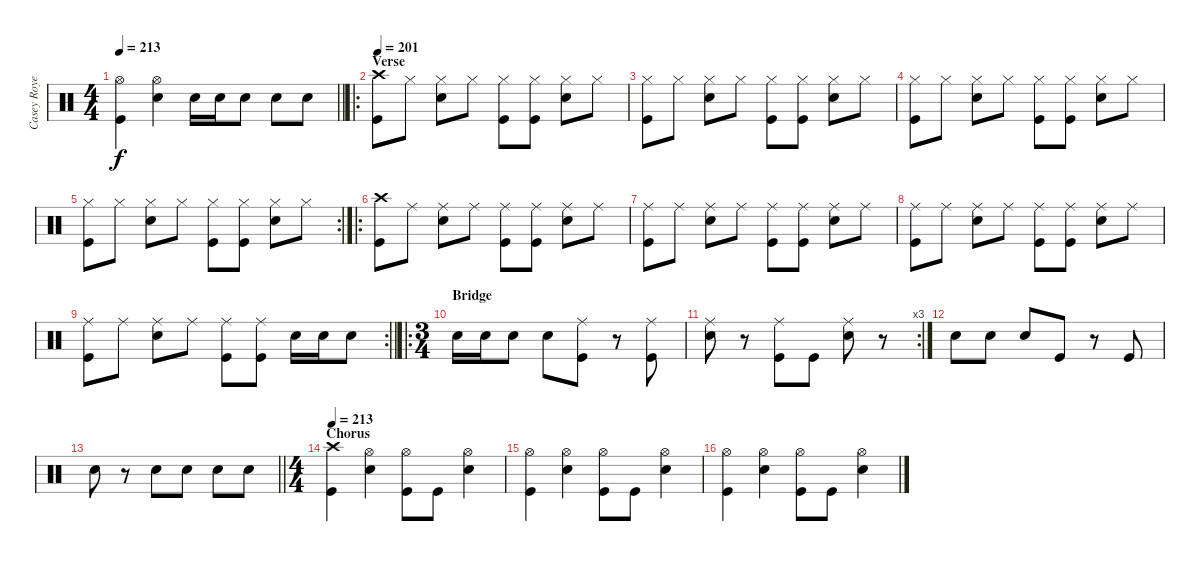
\track ("Casey Royer (Drums)" "Casey Roye") {instrument percussion}
\staff {score}
\articulation defaults
\ts (4 4)
\tempo 213
\clef neutral
\barLineRight lightlight
\ks c
("Hi-Hat (open)" "Kick (hit)").4{dy f} ("Hi-Hat (open)" "Snare (hit) 2").4 "Snare (hit) 2".16 "Snare (hit) 2".16 "Snare (hit) 2".8 "Snare (hit) 2".8 "Snare (hit) 2".8 |
\ro
\section ("" "Verse")
\tempo 201
("Crash high (hit)" "Kick (hit)").8 "Hi-Hat (closed)".8 ("Hi-Hat (closed)" "Snare (hit) 2").8 "Hi-Hat (closed)".8 ("Hi-Hat (closed)" "Kick (hit)").8 ("Hi-Hat (closed)" "Kick (hit)").8 ("Hi-Hat (closed)" "Snare (hit) 2").8 "Hi-Hat (closed)".8 |
("Hi-Hat (closed)" "Kick (hit)").8 "Hi-Hat (closed)".8 ("Hi-Hat (closed)" "Snare (hit) 2").8 "Hi-Hat (closed)".8 ("Hi-Hat (closed)" "Kick (hit)").8 ("Hi-Hat (closed)" "Kick (hit)").8 ("Hi-Hat (closed)" "Snare (hit) 2").8 "Hi-Hat (closed)".8 |
("Hi-Hat (closed)" "Kick (hit)").8 "Hi-Hat (closed)".8 ("Hi-Hat (closed)" "Snare (hit) 2").8 "Hi-Hat (closed)".8 ("Hi-Hat (closed)" "Kick (hit)").8 ("Hi-Hat (closed)" "Kick (hit)").8 ("Hi-Hat (closed)" "Snare (hit) 2").8 "Hi-Hat (closed)".8 |
\rc 2
("Hi-Hat (closed)" "Kick (hit)").8 "Hi-Hat (closed)".8 ("Hi-Hat (closed)" "Snare (hit) 2").8 "Hi-Hat (closed)".8 ("Hi-Hat (closed)" "Kick (hit)").8 ("Hi-Hat (closed)" "Kick (hit)").8 ("Hi-Hat (closed)" "Snare (hit) 2").8 "Hi-Hat (closed)".8 |
\ro
("Crash high (hit)" "Kick (hit)").8 "Ride (middle)".8 ("Ride (middle)" "Snare (hit) 2").8 "Ride (middle)".8 ("Ride (middle)" "Kick (hit)").8 ("Ride (middle)" "Kick (hit)").8 ("Ride (middle)" "Snare (hit) 2").8 "Ride (middle)".8 |
("Ride (middle)" "Kick (hit)").8 "Ride (middle)".8 ("Ride (middle)" "Snare (hit) 2").8 "Ride (middle)".8 ("Ride (middle)" "Kick (hit)").8 ("Ride (middle)" "Kick (hit)").8 ("Ride (middle)" "Snare (hit) 2").8 "Ride (middle)".8 |
("Ride (middle)" "Kick (hit)").8 "Ride (middle)".8 ("Ride (middle)" "Snare (hit) 2").8 "Ride (middle)".8 ("Ride (middle)" "Kick (hit)").8 ("Ride (middle)" "Kick (hit)").8 ("Ride (middle)" "Snare (hit) 2").8 "Ride (middle)".8 |
\rc 2
\barLineRight lightlight
("Ride (middle)" "Kick (hit)").8 "Ride (middle)".8 ("Ride (middle)" "Snare (hit) 2").8 "Ride (middle)".8 ("Ride (middle)" "Kick (hit)").8 ("Ride (middle)" "Kick (hit)").8 "Snare (hit) 2".16 "Snare (hit) 2".16 "Snare (hit) 2".8 |
\ro
\ts (3 4)
\section ("" "Bridge")
"Snare (hit) 2".16 "Snare (hit) 2".16 "Snare (hit) 2".8 "Snare (hit) 2".8 ("Ride (middle)" "Kick (hit)").8 r.8 ("Ride (middle)" "Kick (hit)").8 |
\rc 3
("Ride (middle)" "Snare (hit) 2").8 r.8 ("Ride (middle)" "Kick (hit)").8 "Kick (hit)".8 ("Ride (middle)" "Snare (hit) 2").8 r.8 |
"Snare (hit) 2".8 "Snare (hit) 2".8 "Snare (hit) 2".8 "Kick (hit)".8 r.8 "Kick (hit)".8 |
\barLineRight lightlight "Snare (hit) 2".8
r.8 "Snare (hit) 2".8 "Snare (hit) 2".8 "Snare (hit) 2".8 "Snare (hit) 2".8 |
\ts (4 4)
\section ("" "Chorus")
\tempo 213
("Crash high (hit)" "Kick (hit)").4 ("Hi-Hat (open)" "Snare (hit) 2").4 ("Hi-Hat (open)" "Kick (hit)").8 "Kick (hit)".8 ("Hi-Hat (open)" "Snare (hit) 2").4 |
("Hi-Hat (open)" "Kick (hit)").4 ("Hi-Hat (open)" "Snare (hit) 2").4 ("Hi-Hat (open)" "Kick (hit)").8 "Kick (hit)".8 ("Hi-Hat (open)" "Snare (hit) 2").4 |
("Hi-Hat (open)" "Kick (hit)").4 ("Hi-Hat (open)" "Snare (hit) 2").4 ("Hi-Hat (open)" "Kick (hit)").8 "Kick (hit)".8 ("Hi-Hat (open)" "Snare (hit) 2").4
